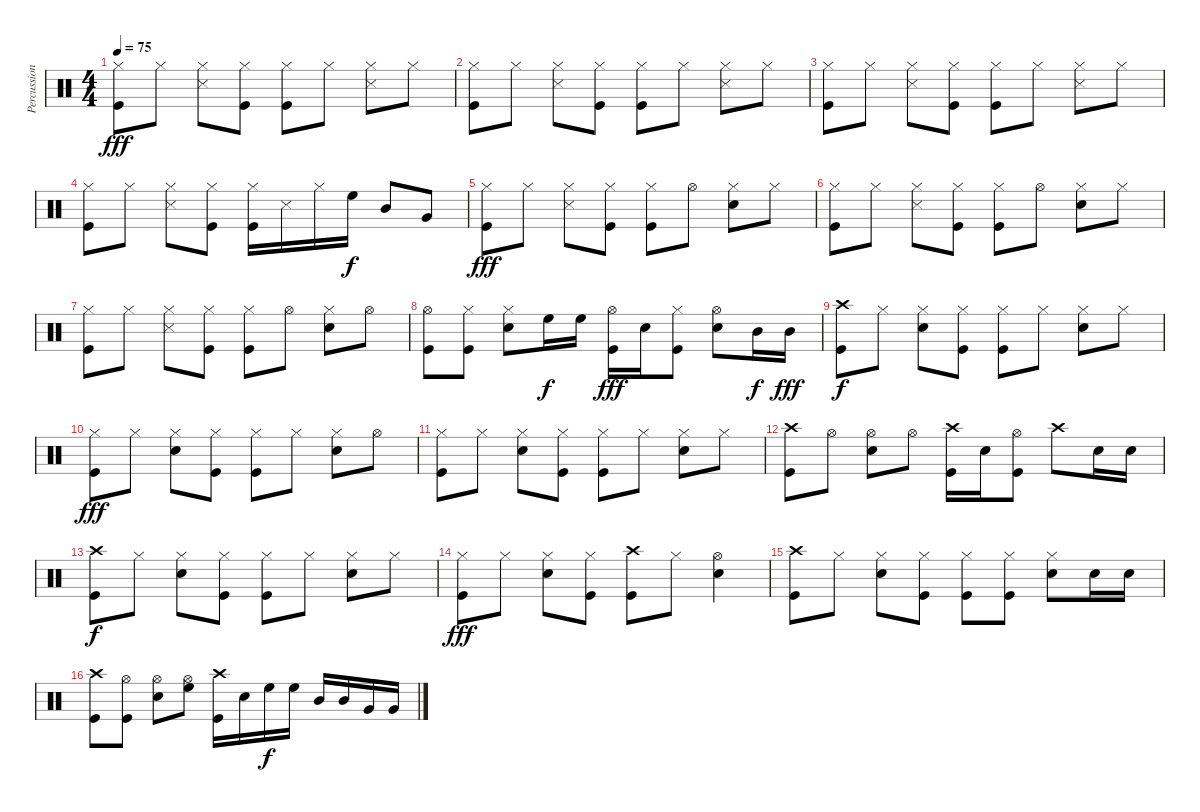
\track ("Percussion" "Percussion") {instrument percussion}
\staff {score}
\articulation defaults
\ts (4 4)
\tempo 75
\clef neutral
\ks c
("Hi-Hat (closed)" "Kick (hit)").8{dy fff} "Hi-Hat (closed)".8 ("Hi-Hat (closed)" "Snare (side stick) 3").8 ("Hi-Hat (closed)" "Kick (hit)").8 ("Hi-Hat (closed)" "Kick (hit)").8 "Hi-Hat (closed)".8 ("Hi-Hat (closed)" "Snare (side stick) 3").8 "Hi-Hat (closed)".8 |
("Hi-Hat (closed)" "Kick (hit)").8 "Hi-Hat (closed)".8 ("Hi-Hat (closed)" "Snare (side stick) 3").8 ("Hi-Hat (closed)" "Kick (hit)").8 ("Hi-Hat (closed)" "Kick (hit)").8 "Hi-Hat (closed)".8 ("Hi-Hat (closed)" "Snare (side stick) 3").8 "Hi-Hat (closed)".8 |
("Hi-Hat (closed)" "Kick (hit)").8 "Hi-Hat (closed)".8 ("Hi-Hat (closed)" "Snare (side stick) 3").8 ("Hi-Hat (closed)" "Kick (hit)").8 ("Hi-Hat (closed)" "Kick (hit)").8 "Hi-Hat (closed)".8 ("Hi-Hat (closed)" "Snare (side stick) 3").8 "Hi-Hat (closed)".8 |
("Hi-Hat (closed)" "Kick (hit)").8 "Hi-Hat (closed)".8 ("Hi-Hat (closed)" "Snare (side stick) 3").8 ("Hi-Hat (closed)" "Kick (hit)").8 ("Hi-Hat (closed)" "Kick (hit)").16 "Snare (side stick) 3".16 "Hi-Hat (closed)".16 "High Floor Tom (hit)".16{dy f} "Mid Tom (hit)".8 "Very Low Tom (hit)".8 |
("Hi-Hat (closed)" "Kick (hit)").8{dy fff} "Hi-Hat (closed)".8 ("Hi-Hat (closed)" "Snare (side stick) 3").8 ("Hi-Hat (closed)" "Kick (hit)").8 ("Hi-Hat (closed)" "Kick (hit)").8 "Hi-Hat (open)".8 ("Hi-Hat (closed)" "Snare (hit) 2").8 "Hi-Hat (closed)".8 |
("Hi-Hat (closed)" "Kick (hit)").8 "Hi-Hat (closed)".8 ("Hi-Hat (closed)" "Snare (side stick) 3").8 ("Hi-Hat (closed)" "Kick (hit)").8 ("Hi-Hat (closed)" "Kick (hit)").8 "Hi-Hat (open)".8 ("Hi-Hat (closed)" "Snare (hit) 2").8 "Hi-Hat (closed)".8 |
("Hi-Hat (closed)" "Kick (hit)").8 "Hi-Hat (closed)".8 ("Hi-Hat (closed)" "Snare (side stick) 3").8 ("Hi-Hat (closed)" "Kick (hit)").8 ("Hi-Hat (closed)" "Kick (hit)").8 "Hi-Hat (open)".8 ("Hi-Hat (closed)" "Snare (hit) 2").8 "Hi-Hat (open)".8 |
("Hi-Hat (open)" "Kick (hit)").8 ("Hi-Hat (closed)" "Kick (hit)").8 ("Hi-Hat (closed)" "Snare (hit) 2").8 "High Floor Tom (hit)".16{dy f} "High Floor Tom (hit)".16 ("Hi-Hat (open)" "Kick (hit)").16{dy fff} "Snare (hit) 2".16 ("Hi-Hat (closed)" "Kick (hit)").8 ("Hi-Hat (open)" "Snare (hit) 2").8 "Mid Tom (hit)".16{dy f} "Mid Tom (hit)".16{dy fff} |
("Crash high (hit)" "Kick (hit)").8{dy f} "Hi-Hat (closed)".8 ("Hi-Hat (closed)" "Snare (hit) 2").8 ("Hi-Hat (closed)" "Kick (hit)").8 ("Hi-Hat (closed)" "Kick (hit)").8 "Hi-Hat (closed)".8 ("Hi-Hat (closed)" "Snare (hit) 2").8 "Hi-Hat (closed)".8 |
("Hi-Hat (closed)" "Kick (hit)").8{dy fff} "Hi-Hat (closed)".8 ("Hi-Hat (closed)" "Snare (hit) 2").8 ("Hi-Hat (closed)" "Kick (hit)").8 ("Hi-Hat (closed)" "Kick (hit)").8 "Hi-Hat (closed)".8 ("Hi-Hat (closed)" "Snare (hit) 2").8 "Hi-Hat (open)".8 |
("Hi-Hat (closed)" "Kick (hit)").8 "Hi-Hat (closed)".8 ("Hi-Hat (closed)" "Snare (hit) 2").8 ("Hi-Hat (closed)" "Kick (hit)").8 ("Hi-Hat (closed)" "Kick (hit)").8 "Hi-Hat (closed)".8 ("Hi-Hat (closed)" "Snare (hit) 2").8 "Hi-Hat (closed)".8 |
("Crash high (hit)" "Kick (hit)").8 "Hi-Hat (open)".8 ("Hi-Hat (open)" "Snare (hit) 2").8 "Hi-Hat (open)".8 ("Crash high (hit)" "Kick (hit)").16 "Snare (hit) 2".16 ("Hi-Hat (open)" "Kick (hit)").8 "Crash high (hit)".8 "Snare (hit) 2".16 "Snare (hit) 2".16 |
("Crash high (hit)" "Kick (hit)").8{dy f} "Hi-Hat (closed)".8 ("Hi-Hat (closed)" "Snare (hit) 2").8 ("Hi-Hat (closed)" "Kick (hit)").8 ("Hi-Hat (closed)" "Kick (hit)").8 "Hi-Hat (closed)".8 ("Hi-Hat (closed)" "Snare (hit) 2").8 "Hi-Hat (closed)".8 |
("Hi-Hat (closed)" "Kick (hit)").8{dy fff} "Hi-Hat (closed)".8 ("Hi-Hat (closed)" "Snare (hit) 2").8 ("Hi-Hat (closed)" "Kick (hit)").8 ("Crash high (hit)" "Kick (hit)").8 "Hi-Hat (closed)".8 ("Hi-Hat (open)" "Snare (hit) 2").4 |
("Crash high (hit)" "Kick (hit)").8 "Hi-Hat (closed)".8 ("Hi-Hat (closed)" "Snare (hit) 2").8 ("Hi-Hat (closed)" "Kick (hit)").8 ("Hi-Hat (closed)" "Kick (hit)").8 ("Hi-Hat (closed)" "Kick (hit)").8 ("Hi-Hat (closed)" "Snare (hit) 2").8 "Snare (hit) 2".16 "Snare (hit) 2".16 |
("Crash high (hit)" "Kick (hit)").8 ("Hi-Hat (open)" "Kick (hit)").8 ("Hi-Hat (open)" "Snare (hit) 2").8 ("Hi-Hat (open)" "High Floor Tom (hit)").8 ("Crash high (hit)" "Kick (hit)").16 "Snare (hit) 2".16 "High Floor Tom (hit)".16{dy f} "High Floor Tom (hit)".16 "Mid Tom (hit)".16 "Mid Tom (hit)".16 "Very Low Tom (hit)".16 "Very Low Tom (hit)".16
